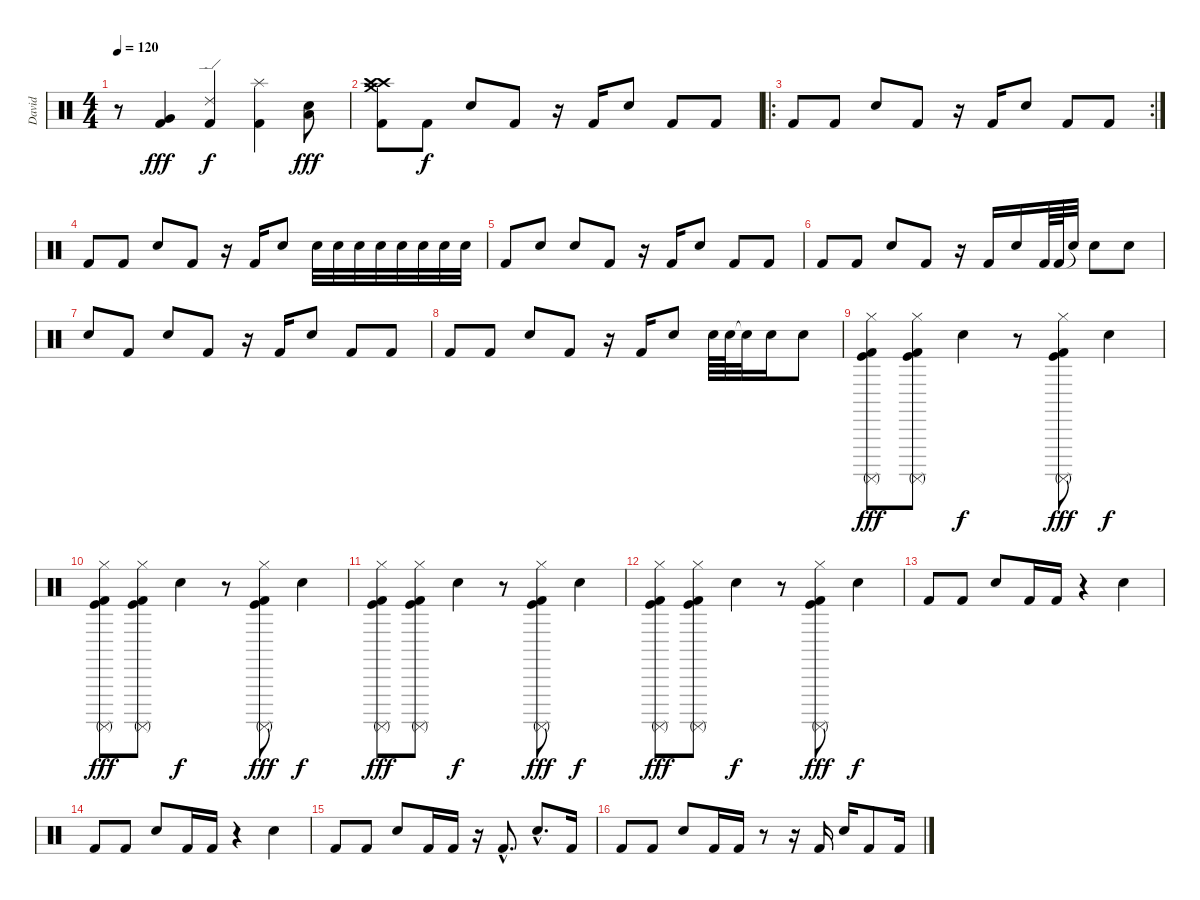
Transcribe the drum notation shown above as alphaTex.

\track ("David " "David ") {instrument percussion}
\staff {score}
\articulation defaults
\ts (4 4)
\tempo 120
\clef neutral
\ks c
r.8{dy fff} ("Very Low Tom (hit)" "Kick (hit) 2").4 ("Ride (edge) 2" "Kick (hit) 2").4{dy f} ("Splash (hit)" "Kick (hit) 2").4 ("Snare (hit) 2" "Low Floor Tom (hit)").8{dy fff} |
("Crash high (hit)" "Crash medium (hit)" "Crash high (hit)" "Kick (hit) 2").8 "Kick (hit) 2".8{dy f} "Snare (hit) 2".8 "Kick (hit) 2".8 r.16 "Kick (hit) 2".16 "Snare (hit) 2".8 "Kick (hit) 2".8 "Kick (hit) 2".8 |
\ro
\rc 2 "Kick (hit) 2".8 "Kick (hit) 2".8 "Snare (hit) 2".8 "Kick (hit) 2".8
r.16 "Kick (hit) 2".16 "Snare (hit) 2".8 "Kick (hit) 2".8 "Kick (hit) 2".8 |
"Kick (hit) 2".8 "Kick (hit) 2".8 "Snare (hit) 2".8 "Kick (hit) 2".8 r.16 "Kick (hit) 2".16 "Snare (hit) 2".8 "Snare (hit) 2".32 "Snare (hit) 2".32 "Snare (hit) 2".32 "Snare (hit) 2".32 "Snare (hit) 2".32 "Snare (hit) 2".32 "Snare (hit) 2".32 "Snare (hit) 2".32 |
"Kick (hit) 2".8 "Snare (hit) 2".8 "Snare (hit) 2".8 "Kick (hit) 2".8 r.16 "Kick (hit) 2".16 "Snare (hit) 2".8 "Kick (hit) 2".8 "Kick (hit) 2".8 |
"Kick (hit) 2".8 "Kick (hit) 2".8 "Snare (hit) 2".8 "Kick (hit) 2".8 r.16 "Kick (hit) 2".16 "Snare (hit) 2".16 "Kick (hit) 2".64 "Kick (hit) 2".64 "Snare (hit)"{t}.32 "Snare (hit) 2".8 "Snare (hit) 2".8 |
"Snare (hit) 2".8 "Kick (hit) 2".8 "Snare (hit) 2".8 "Kick (hit) 2".8 r.16 "Kick (hit) 2".16 "Snare (hit) 2".8 "Kick (hit) 2".8 "Kick (hit) 2".8 |
"Kick (hit) 2".8 "Kick (hit) 2".8 "Snare (hit) 2".8 "Kick (hit) 2".8 r.16 "Kick (hit) 2".16 "Snare (hit) 2".8 "Snare (hit) 2".64 "Snare (hit) 2".64 "Snare (hit)"{t}.32 "Snare (hit) 2".16 "Snare (hit) 2".8 |
("Kick (hit)" "Surdo (mute)" "Hi-Hat (closed)" "Kick (hit) 2").8{dy fff} ("Kick (hit)" "Surdo (mute)" "Hi-Hat (closed)" "Kick (hit) 2").8 "Snare (hit) 2".4{dy f} r.8 ("Kick (hit)" "Surdo (mute)" "Hi-Hat (closed)" "Kick (hit) 2").8{dy fff} "Snare (hit) 2".4{dy f} |
("Kick (hit)" "Surdo (mute)" "Hi-Hat (closed)" "Kick (hit) 2").8{dy fff} ("Kick (hit)" "Surdo (mute)" "Hi-Hat (closed)" "Kick (hit) 2").8 "Snare (hit) 2".4{dy f} r.8 ("Kick (hit)" "Surdo (mute)" "Hi-Hat (closed)" "Kick (hit) 2").8{dy fff} "Snare (hit) 2".4{dy f} |
("Kick (hit)" "Surdo (mute)" "Hi-Hat (closed)" "Kick (hit) 2").8{dy fff} ("Kick (hit)" "Surdo (mute)" "Hi-Hat (closed)" "Kick (hit) 2").8 "Snare (hit) 2".4{dy f} r.8 ("Kick (hit)" "Surdo (mute)" "Hi-Hat (closed)" "Kick (hit) 2").8{dy fff} "Snare (hit) 2".4{dy f} |
("Kick (hit)" "Surdo (mute)" "Hi-Hat (closed)" "Kick (hit) 2").8{dy fff} ("Kick (hit)" "Surdo (mute)" "Hi-Hat (closed)" "Kick (hit) 2").8 "Snare (hit) 2".4{dy f} r.8 ("Kick (hit)" "Surdo (mute)" "Hi-Hat (closed)" "Kick (hit) 2").8{dy fff} "Snare (hit) 2".4{dy f} |
"Kick (hit) 2".8 "Kick (hit) 2".8 "Snare (hit) 2".8 "Kick (hit) 2".16 "Kick (hit) 2".16 r.4 "Snare (hit) 2".4 |
"Kick (hit) 2".8 "Kick (hit) 2".8 "Snare (hit) 2".8 "Kick (hit) 2".16 "Kick (hit) 2".16 r.4 "Snare (hit) 2".4 |
"Kick (hit) 2".8 "Kick (hit) 2".8 "Snare (hit) 2".8 "Kick (hit) 2".16 "Kick (hit) 2".16 r.16 "Kick (hit) 2"{hac}.8{d} "Snare (hit) 2"{hac}.8{d} "Kick (hit) 2".16 |
"Kick (hit) 2".8 "Kick (hit) 2".8 "Snare (hit) 2".8 "Kick (hit) 2".16 "Kick (hit) 2".16 r.8 r.16 "Kick (hit) 2".16 "Snare (hit) 2".16 "Kick (hit) 2".8 "Kick (hit) 2".16
